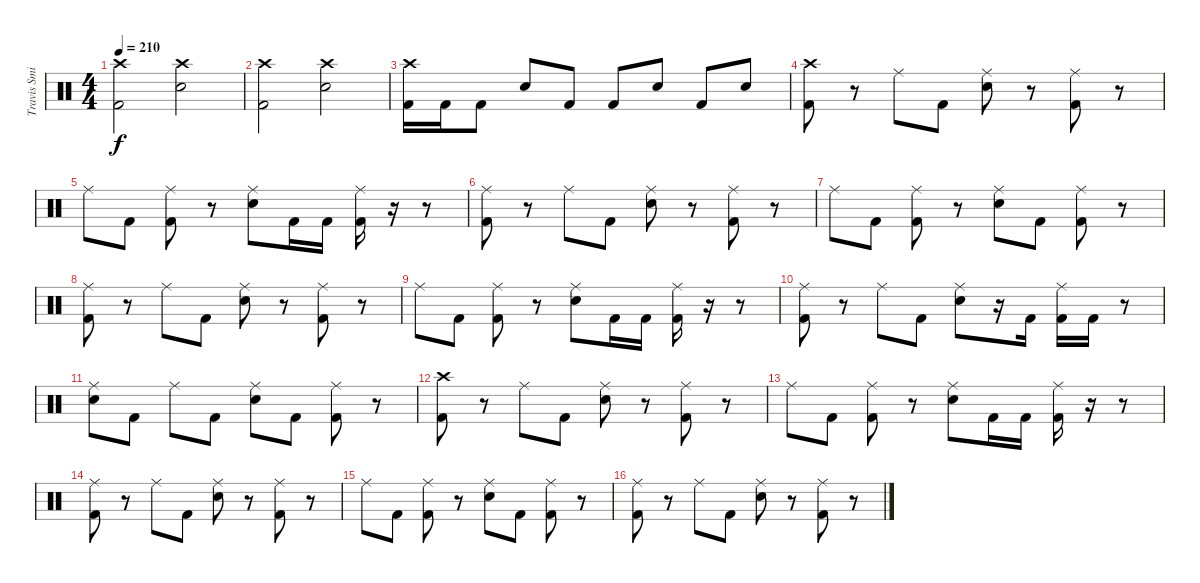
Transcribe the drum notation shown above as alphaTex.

\track ("Travis Smith" "Travis Smi") {instrument percussion}
\staff {score}
\articulation defaults
\ts (4 4)
\tempo 210
\clef neutral
\ks c
("Crash high (hit)" "Kick (hit) 2").2{dy f} ("Crash high (hit)" "Electric Snare (hit)").2 |
("Crash high (hit)" "Kick (hit) 2").2 ("Crash high (hit)" "Electric Snare (hit)").2 |
("Crash high (hit)" "Kick (hit) 2").16 "Kick (hit) 2".16 "Kick (hit) 2".8 "Electric Snare (hit)".8 "Kick (hit) 2".8 "Kick (hit) 2".8 "Electric Snare (hit)".8 "Kick (hit) 2".8 "Electric Snare (hit)".8 |
("Crash high (hit)" "Kick (hit) 2").8 r.8 "Ride (middle)".8 "Kick (hit) 2".8 ("Ride (middle)" "Electric Snare (hit)").8 r.8 ("Ride (middle)" "Kick (hit) 2").8 r.8 |
"Ride (middle)".8 "Kick (hit) 2".8 ("Ride (middle)" "Kick (hit) 2").8 r.8 ("Ride (middle)" "Electric Snare (hit)").8 "Kick (hit) 2".16 "Kick (hit) 2".16 ("Ride (middle)" "Kick (hit) 2").16 r.16 r.8 |
("Ride (middle)" "Kick (hit) 2").8 r.8 "Ride (middle)".8 "Kick (hit) 2".8 ("Ride (middle)" "Electric Snare (hit)").8 r.8 ("Ride (middle)" "Kick (hit) 2").8 r.8 |
"Ride (middle)".8 "Kick (hit) 2".8 ("Ride (middle)" "Kick (hit) 2").8 r.8 ("Ride (middle)" "Electric Snare (hit)").8 "Kick (hit) 2".8 ("Ride (middle)" "Kick (hit) 2").8 r.8 |
("Ride (middle)" "Kick (hit) 2").8 r.8 "Ride (middle)".8 "Kick (hit) 2".8 ("Ride (middle)" "Electric Snare (hit)").8 r.8 ("Ride (middle)" "Kick (hit) 2").8 r.8 |
"Ride (middle)".8 "Kick (hit) 2".8 ("Ride (middle)" "Kick (hit) 2").8 r.8 ("Ride (middle)" "Electric Snare (hit)").8 "Kick (hit) 2".16 "Kick (hit) 2".16 ("Ride (middle)" "Kick (hit) 2").16 r.16 r.8 |
("Ride (middle)" "Kick (hit) 2").8 r.8 "Ride (middle)".8 "Kick (hit) 2".8 ("Ride (middle)" "Electric Snare (hit)").8 r.16 "Kick (hit) 2".16 ("Ride (middle)" "Kick (hit) 2").16 "Kick (hit) 2".16 r.8 |
("Ride (middle)" "Electric Snare (hit)").8 "Kick (hit) 2".8 "Ride (middle)".8 "Kick (hit) 2".8 ("Ride (middle)" "Electric Snare (hit)").8 "Kick (hit) 2".8 ("Ride (middle)" "Kick (hit) 2").8 r.8 |
("Crash high (hit)" "Kick (hit) 2").8 r.8 "Ride (middle)".8 "Kick (hit) 2".8 ("Ride (middle)" "Electric Snare (hit)").8 r.8 ("Ride (middle)" "Kick (hit) 2").8 r.8 |
"Ride (middle)".8 "Kick (hit) 2".8 ("Ride (middle)" "Kick (hit) 2").8 r.8 ("Ride (middle)" "Electric Snare (hit)").8 "Kick (hit) 2".16 "Kick (hit) 2".16 ("Ride (middle)" "Kick (hit) 2").16 r.16 r.8 |
("Ride (middle)" "Kick (hit) 2").8 r.8 "Ride (middle)".8 "Kick (hit) 2".8 ("Ride (middle)" "Electric Snare (hit)").8 r.8 ("Ride (middle)" "Kick (hit) 2").8 r.8 |
"Ride (middle)".8 "Kick (hit) 2".8 ("Ride (middle)" "Kick (hit) 2").8 r.8 ("Ride (middle)" "Electric Snare (hit)").8 "Kick (hit) 2".8 ("Ride (middle)" "Kick (hit) 2").8 r.8 |
("Ride (middle)" "Kick (hit) 2").8 r.8 "Ride (middle)".8 "Kick (hit) 2".8 ("Ride (middle)" "Electric Snare (hit)").8 r.8 ("Ride (middle)" "Kick (hit) 2").8 r.8
